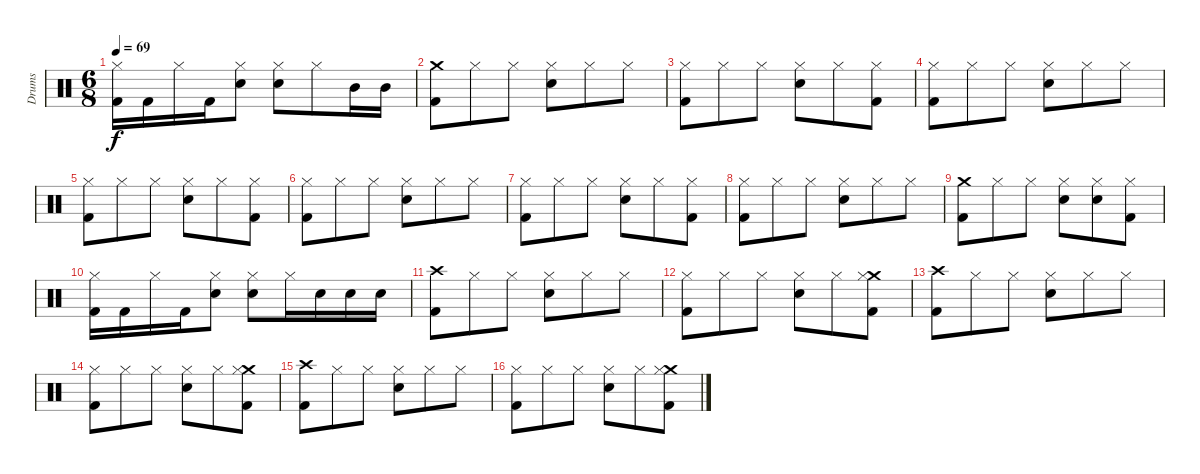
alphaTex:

\track ("Drums" "Drums") {instrument percussion}
\staff {score}
\articulation defaults
\ts (6 8)
\tempo 69
\clef neutral
\ks c
("Hi-Hat (closed)" "Kick (hit) 2").16{dy f} "Kick (hit) 2".16 "Hi-Hat (closed)".16 "Kick (hit) 2".16 ("Hi-Hat (closed)" "Snare (hit) 2").8 ("Hi-Hat (closed)" "Snare (hit) 2").8 "Hi-Hat (closed)".8 "Mid Tom (hit)".16 "Mid Tom (hit)".16 |
("Crash medium (hit)" "Kick (hit) 2").8 "Hi-Hat (closed)".8 "Hi-Hat (closed)".8 ("Hi-Hat (closed)" "Snare (hit) 2").8 "Hi-Hat (closed)".8 "Hi-Hat (closed)".8 |
("Hi-Hat (closed)" "Kick (hit) 2").8 "Hi-Hat (closed)".8 "Hi-Hat (closed)".8 ("Hi-Hat (closed)" "Snare (hit) 2").8 "Hi-Hat (closed)".8 ("Hi-Hat (closed)" "Kick (hit) 2").8 |
("Hi-Hat (closed)" "Kick (hit) 2").8 "Hi-Hat (closed)".8 "Hi-Hat (closed)".8 ("Hi-Hat (closed)" "Snare (hit) 2").8 "Hi-Hat (closed)".8 "Hi-Hat (closed)".8 |
("Hi-Hat (closed)" "Kick (hit) 2").8 "Hi-Hat (closed)".8 "Hi-Hat (closed)".8 ("Hi-Hat (closed)" "Snare (hit) 2").8 "Hi-Hat (closed)".8 ("Hi-Hat (closed)" "Kick (hit) 2").8 |
("Hi-Hat (closed)" "Kick (hit) 2").8 "Hi-Hat (closed)".8 "Hi-Hat (closed)".8 ("Hi-Hat (closed)" "Snare (hit) 2").8 "Hi-Hat (closed)".8 "Hi-Hat (closed)".8 |
("Hi-Hat (closed)" "Kick (hit) 2").8 "Hi-Hat (closed)".8 "Hi-Hat (closed)".8 ("Hi-Hat (closed)" "Snare (hit) 2").8 "Hi-Hat (closed)".8 ("Hi-Hat (closed)" "Kick (hit) 2").8 |
("Hi-Hat (closed)" "Kick (hit) 2").8 "Hi-Hat (closed)".8 "Hi-Hat (closed)".8 ("Hi-Hat (closed)" "Snare (hit) 2").8 "Hi-Hat (closed)".8 "Hi-Hat (closed)".8 |
("Crash medium (hit)" "Kick (hit) 2").8 "Hi-Hat (closed)".8 "Hi-Hat (closed)".8 ("Hi-Hat (closed)" "Snare (hit) 2").8 ("Hi-Hat (closed)" "Snare (hit) 2").8 ("Hi-Hat (closed)" "Kick (hit) 2").8 |
("Hi-Hat (closed)" "Kick (hit) 2").16 "Kick (hit) 2".16 "Hi-Hat (closed)".16 "Kick (hit) 2".16 ("Hi-Hat (closed)" "Snare (hit) 2").8 ("Hi-Hat (closed)" "Snare (hit) 2").8 "Hi-Hat (closed)".16 "Snare (hit) 2".16 "Snare (hit) 2".16 "Snare (hit) 2".16 |
("Crash high (hit)" "Kick (hit) 2").8 "Hi-Hat (closed)".8 "Hi-Hat (closed)".8 ("Hi-Hat (closed)" "Snare (hit) 2").8 "Hi-Hat (closed)".8 "Hi-Hat (closed)".8 |
("Hi-Hat (closed)" "Kick (hit) 2").8 "Hi-Hat (closed)".8 "Hi-Hat (closed)".8 ("Hi-Hat (closed)" "Snare (hit) 2").8 "Hi-Hat (closed)".8 ("Crash medium (hit)" "Hi-Hat (closed)" "Kick (hit) 2").8 |
("Crash high (hit)" "Kick (hit) 2").8 "Hi-Hat (closed)".8 "Hi-Hat (closed)".8 ("Hi-Hat (closed)" "Snare (hit) 2").8 "Hi-Hat (closed)".8 "Hi-Hat (closed)".8 |
("Hi-Hat (closed)" "Kick (hit) 2").8 "Hi-Hat (closed)".8 "Hi-Hat (closed)".8 ("Hi-Hat (closed)" "Snare (hit) 2").8 "Hi-Hat (closed)".8 ("Crash medium (hit)" "Hi-Hat (closed)" "Kick (hit) 2").8 |
("Crash high (hit)" "Kick (hit) 2").8 "Hi-Hat (closed)".8 "Hi-Hat (closed)".8 ("Hi-Hat (closed)" "Snare (hit) 2").8 "Hi-Hat (closed)".8 "Hi-Hat (closed)".8 |
("Hi-Hat (closed)" "Kick (hit) 2").8 "Hi-Hat (closed)".8 "Hi-Hat (closed)".8 ("Hi-Hat (closed)" "Snare (hit) 2").8 "Hi-Hat (closed)".8 ("Crash medium (hit)" "Hi-Hat (closed)" "Kick (hit) 2").8
